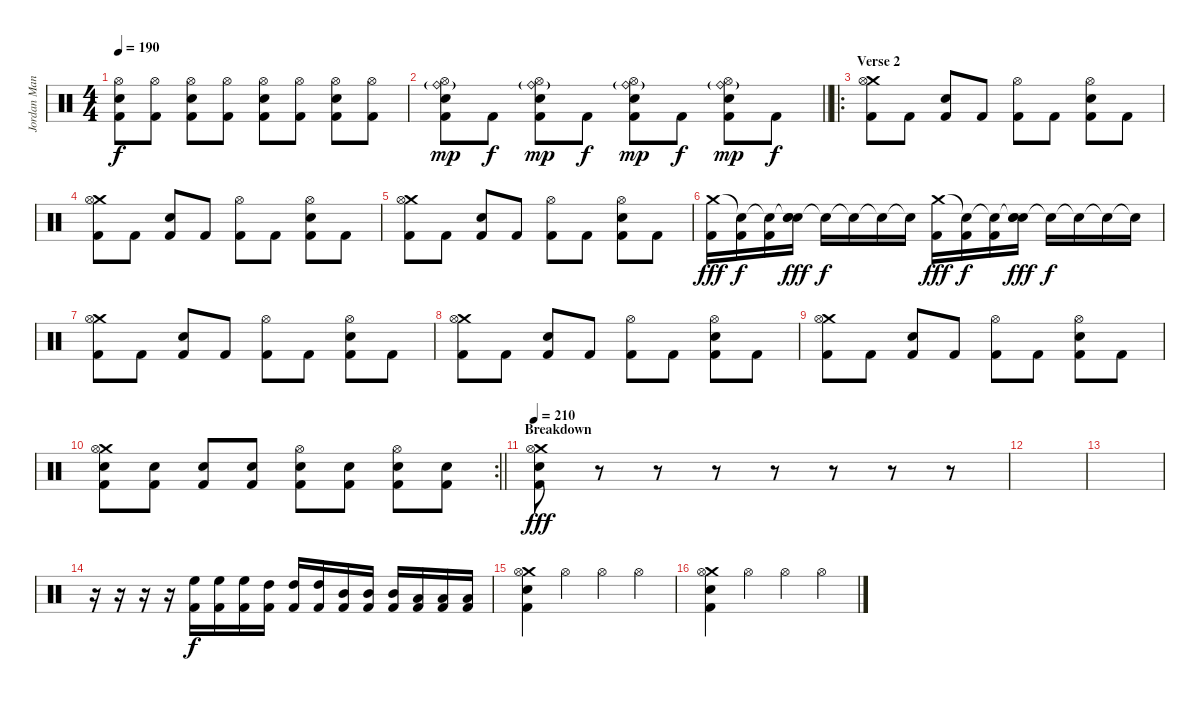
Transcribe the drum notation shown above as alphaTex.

\track ("Jordan Mancino" "Jordan Man") {instrument percussion}
\staff {score}
\articulation defaults
\ts (4 4)
\tempo 190
\clef neutral
\ks c
("Hi-Hat (open)" "Snare (hit) 2" "Kick (hit) 2").8{dy f} ("Hi-Hat (open)" "Kick (hit) 2").8 ("Hi-Hat (open)" "Snare (hit) 2" "Kick (hit) 2").8 ("Hi-Hat (open)" "Kick (hit) 2").8 ("Hi-Hat (open)" "Snare (hit) 2" "Kick (hit) 2").8 ("Hi-Hat (open)" "Kick (hit) 2").8 ("Hi-Hat (open)" "Snare (hit) 2" "Kick (hit) 2").8 ("Hi-Hat (open)" "Kick (hit) 2").8 |
\barLineRight lightlight
("Ride (bell)"{g} "Hi-Hat (open)" "Snare (hit) 2" "Kick (hit) 2").8{dy mp} "Kick (hit) 2".8{dy f} ("Ride (bell)"{g} "Hi-Hat (open)" "Snare (hit) 2" "Kick (hit) 2").8{dy mp} "Kick (hit) 2".8{dy f} ("Ride (bell)"{g} "Hi-Hat (open)" "Snare (hit) 2" "Kick (hit) 2").8{dy mp} "Kick (hit) 2".8{dy f} ("Ride (bell)"{g} "Hi-Hat (open)" "Snare (hit) 2" "Kick (hit) 2").8{dy mp} "Kick (hit) 2".8{dy f} |
\ro
\section ("" "Verse 2")
("Crash medium (hit)" "Kick (hit) 2" "Hi-Hat (open)").8 "Kick (hit) 2".8 ("Kick (hit) 2" "Snare (hit) 2").8 "Kick (hit) 2".8 ("Kick (hit) 2" "Hi-Hat (open)").8 "Kick (hit) 2".8 ("Kick (hit) 2" "Snare (hit) 2" "Hi-Hat (open)").8 "Kick (hit) 2".8 |
("Crash medium (hit)" "Kick (hit) 2" "Hi-Hat (open)").8 "Kick (hit) 2".8 ("Kick (hit) 2" "Snare (hit) 2").8 "Kick (hit) 2".8 ("Kick (hit) 2" "Hi-Hat (open)").8 "Kick (hit) 2".8 ("Kick (hit) 2" "Snare (hit) 2" "Hi-Hat (open)").8 "Kick (hit) 2".8 |
("Crash medium (hit)" "Kick (hit) 2" "Hi-Hat (open)").8 "Kick (hit) 2".8 ("Kick (hit) 2" "Snare (hit) 2").8 "Kick (hit) 2".8 ("Kick (hit) 2" "Hi-Hat (open)").8 "Kick (hit) 2".8 ("Kick (hit) 2" "Snare (hit) 2" "Hi-Hat (open)").8 "Kick (hit) 2".8 |
("Crash medium (hit)" "Kick (hit) 2").16{dy fff} ("Snare (hit)"{t} "Kick (hit) 2").16{dy f} ("Snare (hit)"{t} "Kick (hit) 2").16 ("Snare (hit)"{t} "Snare (hit) 2" "Snare (hit) 2").16{dy fff} "Snare (hit)"{t}.16{dy f} "Snare (hit)"{t}.16 "Snare (hit)"{t}.16 "Snare (hit)"{t}.16 ("Crash medium (hit)" "Kick (hit) 2").16{dy fff} ("Snare (hit)"{t} "Kick (hit) 2").16{dy f} ("Snare (hit)"{t} "Kick (hit) 2").16 ("Snare (hit)"{t} "Snare (hit) 2" "Snare (hit) 2").16{dy fff} "Snare (hit)"{t}.16{dy f} "Snare (hit)"{t}.16 "Snare (hit)"{t}.16 "Snare (hit)"{t}.16 |
("Crash medium (hit)" "Kick (hit) 2" "Hi-Hat (open)").8 "Kick (hit) 2".8 ("Kick (hit) 2" "Snare (hit) 2").8 "Kick (hit) 2".8 ("Kick (hit) 2" "Hi-Hat (open)").8 "Kick (hit) 2".8 ("Kick (hit) 2" "Snare (hit) 2" "Hi-Hat (open)").8 "Kick (hit) 2".8 |
("Crash medium (hit)" "Kick (hit) 2" "Hi-Hat (open)").8 "Kick (hit) 2".8 ("Kick (hit) 2" "Snare (hit) 2").8 "Kick (hit) 2".8 ("Kick (hit) 2" "Hi-Hat (open)").8 "Kick (hit) 2".8 ("Kick (hit) 2" "Snare (hit) 2" "Hi-Hat (open)").8 "Kick (hit) 2".8 |
("Crash medium (hit)" "Kick (hit) 2" "Hi-Hat (open)").8 "Kick (hit) 2".8 ("Kick (hit) 2" "Snare (hit) 2").8 "Kick (hit) 2".8 ("Kick (hit) 2" "Hi-Hat (open)").8 "Kick (hit) 2".8 ("Kick (hit) 2" "Snare (hit) 2" "Hi-Hat (open)").8 "Kick (hit) 2".8 |
\rc 2
\barLineRight lightlight
("Crash medium (hit)" "Kick (hit) 2" "Snare (hit) 2" "Hi-Hat (open)").8 ("Kick (hit) 2" "Snare (hit) 2").8 ("Kick (hit) 2" "Snare (hit) 2").8 ("Kick (hit) 2" "Snare (hit) 2").8 ("Kick (hit) 2" "Snare (hit) 2" "Hi-Hat (open)").8 ("Kick (hit) 2" "Snare (hit) 2").8 ("Kick (hit) 2" "Snare (hit) 2" "Hi-Hat (open)").8 ("Kick (hit) 2" "Snare (hit) 2").8 |
\section ("" "Breakdown")
\tempo 210
("Crash medium (hit)" "Kick (hit) 2" "Snare (hit) 2" "Hi-Hat (open)").8{dy fff} r.8 r.8 r.8 r.8 r.8 r.8 r.8 |
|
|
r.16 r.16 r.16 r.16 ("High Floor Tom (hit)" "Kick (hit) 2").16{dy f} ("High Floor Tom (hit)" "Kick (hit) 2").16 ("High Floor Tom (hit)" "Kick (hit) 2").16 ("High Tom (hit)" "Kick (hit) 2").16 ("High Tom (hit)" "Kick (hit) 2").16 ("High Tom (hit)" "Kick (hit) 2").16 ("Mid Tom (hit)" "Kick (hit) 2").16 ("Mid Tom (hit)" "Kick (hit) 2").16 ("Mid Tom (hit)" "Kick (hit) 2").16 ("Low Tom (hit)" "Kick (hit) 2").16 ("Low Tom (hit)" "Kick (hit) 2").16 ("Low Tom (hit)" "Kick (hit) 2").16 |
("Crash medium (hit)" "Kick (hit) 2" "Hi-Hat (open)" "Snare (hit) 2").4 "Hi-Hat (open)".4 "Hi-Hat (open)".4 "Hi-Hat (open)".4 |
("Crash medium (hit)" "Kick (hit) 2" "Hi-Hat (open)" "Snare (hit) 2").4 "Hi-Hat (open)".4 "Hi-Hat (open)".4 "Hi-Hat (open)".4
